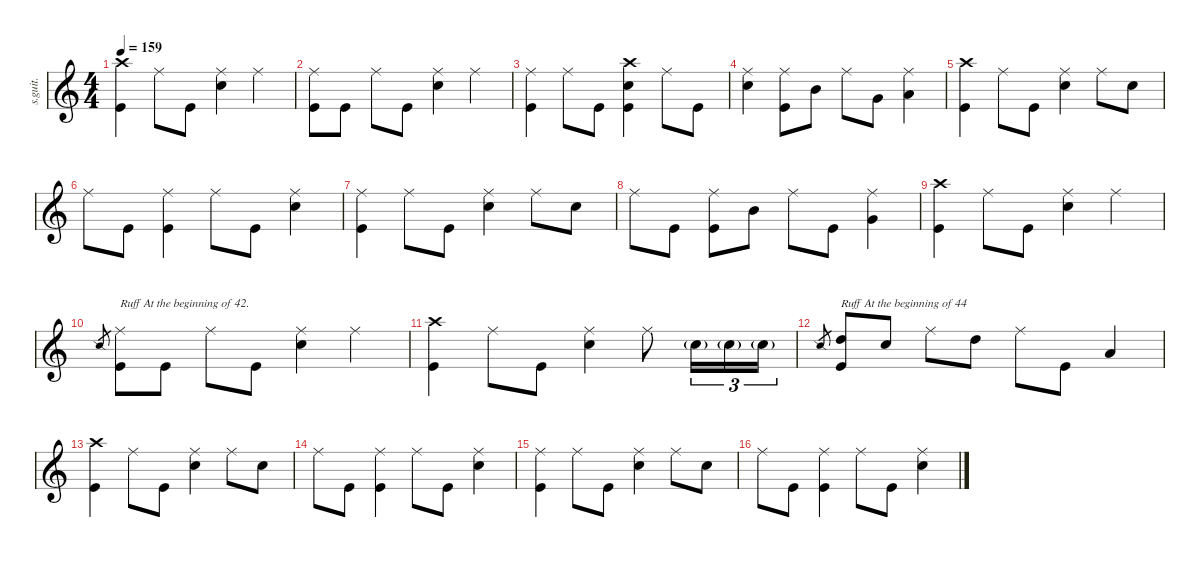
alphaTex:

\defaultSystemsLayout 4
\hideDynamics
\bracketExtendMode nobrackets
\track ("John Dolmayan" "s.guit.") {instrument percussion}
\staff {score}
\articulation defaults
\ts (4 4)
\tempo 159
\clef g2
\ks c
("Crash high (hit)" "Kick (hit)").4{lyrics (0 "") lyrics (1 "") lyrics (2 "") lyrics (3 "") lyrics (4 "") dy f} "Ride (middle)".8{lyrics (0 "") lyrics (1 "") lyrics (2 "") lyrics (3 "") lyrics (4 "")} "Kick (hit)".8{lyrics (0 "") lyrics (1 "") lyrics (2 "") lyrics (3 "") lyrics (4 "")} ("Ride (middle)" "Snare (hit) 2").4{lyrics (0 "") lyrics (1 "") lyrics (2 "") lyrics (3 "") lyrics (4 "")} "Ride (middle)".4{lyrics (0 "") lyrics (1 "") lyrics (2 "") lyrics (3 "") lyrics (4 "")} |
("Ride (middle)" "Kick (hit)").8{lyrics (0 "") lyrics (1 "") lyrics (2 "") lyrics (3 "") lyrics (4 "")} "Kick (hit)".8{lyrics (0 "") lyrics (1 "") lyrics (2 "") lyrics (3 "") lyrics (4 "")} "Ride (middle)".8{lyrics (0 "") lyrics (1 "") lyrics (2 "") lyrics (3 "") lyrics (4 "")} "Kick (hit)".8{lyrics (0 "") lyrics (1 "") lyrics (2 "") lyrics (3 "") lyrics (4 "")} ("Ride (middle)" "Snare (hit) 2").4{lyrics (0 "") lyrics (1 "") lyrics (2 "") lyrics (3 "") lyrics (4 "")} "Ride (middle)".4{lyrics (0 "") lyrics (1 "") lyrics (2 "") lyrics (3 "") lyrics (4 "")} |
("Ride (middle)" "Kick (hit)").4{lyrics (0 "") lyrics (1 "") lyrics (2 "") lyrics (3 "") lyrics (4 "")} "Ride (middle)".8{lyrics (0 "") lyrics (1 "") lyrics (2 "") lyrics (3 "") lyrics (4 "")} "Kick (hit)".8{lyrics (0 "") lyrics (1 "") lyrics (2 "") lyrics (3 "") lyrics (4 "")} ("Crash high (hit)" "Snare (hit) 2" "Kick (hit)").4{lyrics (0 "") lyrics (1 "") lyrics (2 "") lyrics (3 "") lyrics (4 "")} "Ride (middle)".8{lyrics (0 "") lyrics (1 "") lyrics (2 "") lyrics (3 "") lyrics (4 "")} "Kick (hit)".8{lyrics (0 "") lyrics (1 "") lyrics (2 "") lyrics (3 "") lyrics (4 "")} |
("Ride (middle)" "Snare (hit) 2").4{lyrics (0 "") lyrics (1 "") lyrics (2 "") lyrics (3 "") lyrics (4 "")} ("Ride (middle)" "Kick (hit)").8{lyrics (0 "") lyrics (1 "") lyrics (2 "") lyrics (3 "") lyrics (4 "")} "Mid Tom (hit)".8{lyrics (0 "") lyrics (1 "") lyrics (2 "") lyrics (3 "") lyrics (4 "")} "Ride (middle)".8{lyrics (0 "") lyrics (1 "") lyrics (2 "") lyrics (3 "") lyrics (4 "")} "Very Low Tom (hit)".8{lyrics (0 "") lyrics (1 "") lyrics (2 "") lyrics (3 "") lyrics (4 "")} ("Ride (middle)" "Low Floor Tom (hit)").4{lyrics (0 "") lyrics (1 "") lyrics (2 "") lyrics (3 "") lyrics (4 "")} |
("Crash high (hit)" "Kick (hit)").4{lyrics (0 "") lyrics (1 "") lyrics (2 "") lyrics (3 "") lyrics (4 "")} "Ride (middle)".8{lyrics (0 "") lyrics (1 "") lyrics (2 "") lyrics (3 "") lyrics (4 "")} "Kick (hit)".8{lyrics (0 "") lyrics (1 "") lyrics (2 "") lyrics (3 "") lyrics (4 "")} ("Ride (middle)" "Snare (hit) 2").4{lyrics (0 "") lyrics (1 "") lyrics (2 "") lyrics (3 "") lyrics (4 "")} "Ride (middle)".8{lyrics (0 "") lyrics (1 "") lyrics (2 "") lyrics (3 "") lyrics (4 "")} "Snare (hit) 2".8{lyrics (0 "") lyrics (1 "") lyrics (2 "") lyrics (3 "") lyrics (4 "")} |
"Ride (middle)".8{lyrics (0 "") lyrics (1 "") lyrics (2 "") lyrics (3 "") lyrics (4 "")} "Kick (hit)".8{lyrics (0 "") lyrics (1 "") lyrics (2 "") lyrics (3 "") lyrics (4 "")} ("Ride (middle)" "Kick (hit)").4{lyrics (0 "") lyrics (1 "") lyrics (2 "") lyrics (3 "") lyrics (4 "")} "Ride (middle)".8{lyrics (0 "") lyrics (1 "") lyrics (2 "") lyrics (3 "") lyrics (4 "")} "Kick (hit)".8{lyrics (0 "") lyrics (1 "") lyrics (2 "") lyrics (3 "") lyrics (4 "")} ("Ride (middle)" "Snare (hit) 2").4{lyrics (0 "") lyrics (1 "") lyrics (2 "") lyrics (3 "") lyrics (4 "")} |
("Kick (hit)" "Ride (middle)").4{lyrics (0 "") lyrics (1 "") lyrics (2 "") lyrics (3 "") lyrics (4 "")} "Ride (middle)".8{lyrics (0 "") lyrics (1 "") lyrics (2 "") lyrics (3 "") lyrics (4 "")} "Kick (hit)".8{lyrics (0 "") lyrics (1 "") lyrics (2 "") lyrics (3 "") lyrics (4 "")} ("Ride (middle)" "Snare (hit) 2").4{lyrics (0 "") lyrics (1 "") lyrics (2 "") lyrics (3 "") lyrics (4 "")} "Ride (middle)".8{lyrics (0 "") lyrics (1 "") lyrics (2 "") lyrics (3 "") lyrics (4 "")} "Snare (hit) 2".8{lyrics (0 "") lyrics (1 "") lyrics (2 "") lyrics (3 "") lyrics (4 "")} |
"Ride (middle)".8{lyrics (0 "") lyrics (1 "") lyrics (2 "") lyrics (3 "") lyrics (4 "")} "Kick (hit)".8{lyrics (0 "") lyrics (1 "") lyrics (2 "") lyrics (3 "") lyrics (4 "")} ("Ride (middle)" "Kick (hit)").8{lyrics (0 "") lyrics (1 "") lyrics (2 "") lyrics (3 "") lyrics (4 "")} "Mid Tom (hit)".8{lyrics (0 "") lyrics (1 "") lyrics (2 "") lyrics (3 "") lyrics (4 "")} "Ride (middle)".8{lyrics (0 "") lyrics (1 "") lyrics (2 "") lyrics (3 "") lyrics (4 "")} "Kick (hit)".8{lyrics (0 "") lyrics (1 "") lyrics (2 "") lyrics (3 "") lyrics (4 "")} ("Very Low Tom (hit)" "Ride (middle)").4{lyrics (0 "") lyrics (1 "") lyrics (2 "") lyrics (3 "") lyrics (4 "")} |
("Crash high (hit)" "Kick (hit)").4{lyrics (0 "") lyrics (1 "") lyrics (2 "") lyrics (3 "") lyrics (4 "")} "Ride (middle)".8{lyrics (0 "") lyrics (1 "") lyrics (2 "") lyrics (3 "") lyrics (4 "")} "Kick (hit)".8{lyrics (0 "") lyrics (1 "") lyrics (2 "") lyrics (3 "") lyrics (4 "")} ("Ride (middle)" "Snare (hit) 2").4{lyrics (0 "") lyrics (1 "") lyrics (2 "") lyrics (3 "") lyrics (4 "")} "Ride (middle)".4{lyrics (0 "") lyrics (1 "") lyrics (2 "") lyrics (3 "") lyrics (4 "")} |
"Snare (side stick) 2".8{lyrics (0 "") lyrics (1 "") lyrics (2 "") lyrics (3 "") lyrics (4 "") gr dy mp} ("Ride (middle)" "Kick (hit)").8{txt "Ruff At the beginning of 42." lyrics (0 "") lyrics (1 "") lyrics (2 "") lyrics (3 "") lyrics (4 "") dy f} "Kick (hit)".8{lyrics (0 "") lyrics (1 "") lyrics (2 "") lyrics (3 "") lyrics (4 "")} "Ride (middle)".8{lyrics (0 "") lyrics (1 "") lyrics (2 "") lyrics (3 "") lyrics (4 "")} "Kick (hit)".8{lyrics (0 "") lyrics (1 "") lyrics (2 "") lyrics (3 "") lyrics (4 "")} ("Ride (middle)" "Snare (hit) 2").4{lyrics (0 "") lyrics (1 "") lyrics (2 "") lyrics (3 "") lyrics (4 "")} "Ride (middle)".4{lyrics (0 "") lyrics (1 "") lyrics (2 "") lyrics (3 "") lyrics (4 "")} |
("Crash high (hit)" "Kick (hit)").4{lyrics (0 "") lyrics (1 "") lyrics (2 "") lyrics (3 "") lyrics (4 "")} "Ride (middle)".8{lyrics (0 "") lyrics (1 "") lyrics (2 "") lyrics (3 "") lyrics (4 "")} "Kick (hit)".8{lyrics (0 "") lyrics (1 "") lyrics (2 "") lyrics (3 "") lyrics (4 "")} ("Ride (middle)" "Snare (hit) 2").4{lyrics (0 "") lyrics (1 "") lyrics (2 "") lyrics (3 "") lyrics (4 "")} "Ride (middle)".8{lyrics (0 "") lyrics (1 "") lyrics (2 "") lyrics (3 "") lyrics (4 "")} "Snare (hit) 2"{g}.16{tu (3 2) lyrics (0 "") lyrics (1 "") lyrics (2 "") lyrics (3 "") lyrics (4 "") dy ff} "Snare (hit) 2"{g}.16{tu (3 2) lyrics (0 "") lyrics (1 "") lyrics (2 "") lyrics (3 "") lyrics (4 "")} "Snare (hit) 2"{g}.16{tu (3 2) lyrics (0 "") lyrics (1 "") lyrics (2 "") lyrics (3 "") lyrics (4 "")} |
"Snare (side stick) 2".8{lyrics (0 "") lyrics (1 "") lyrics (2 "") lyrics (3 "") lyrics (4 "") gr dy mp} ("High Tom (hit)" "Kick (hit)").8{txt "Ruff At the beginning of 44" lyrics (0 "") lyrics (1 "") lyrics (2 "") lyrics (3 "") lyrics (4 "") dy f} "Snare (hit) 2".8{lyrics (0 "") lyrics (1 "") lyrics (2 "") lyrics (3 "") lyrics (4 "")} "Ride (middle)".8{lyrics (0 "") lyrics (1 "") lyrics (2 "") lyrics (3 "") lyrics (4 "")} "High Tom (hit)".8{lyrics (0 "") lyrics (1 "") lyrics (2 "") lyrics (3 "") lyrics (4 "")} "Ride (middle)".8{lyrics (0 "") lyrics (1 "") lyrics (2 "") lyrics (3 "") lyrics (4 "")} "Kick (hit)".8{lyrics (0 "") lyrics (1 "") lyrics (2 "") lyrics (3 "") lyrics (4 "")} "Low Floor Tom (hit)".4{lyrics (0 "") lyrics (1 "") lyrics (2 "") lyrics (3 "") lyrics (4 "")} |
("Crash high (hit)" "Kick (hit)").4{lyrics (0 "") lyrics (1 "") lyrics (2 "") lyrics (3 "") lyrics (4 "")} "Ride (middle)".8{lyrics (0 "") lyrics (1 "") lyrics (2 "") lyrics (3 "") lyrics (4 "")} "Kick (hit)".8{lyrics (0 "") lyrics (1 "") lyrics (2 "") lyrics (3 "") lyrics (4 "")} ("Ride (middle)" "Snare (hit) 2").4{lyrics (0 "") lyrics (1 "") lyrics (2 "") lyrics (3 "") lyrics (4 "")} "Ride (middle)".8{lyrics (0 "") lyrics (1 "") lyrics (2 "") lyrics (3 "") lyrics (4 "")} "Snare (hit) 2".8{lyrics (0 "") lyrics (1 "") lyrics (2 "") lyrics (3 "") lyrics (4 "")} |
"Ride (middle)".8{lyrics (0 "") lyrics (1 "") lyrics (2 "") lyrics (3 "") lyrics (4 "")} "Kick (hit)".8{lyrics (0 "") lyrics (1 "") lyrics (2 "") lyrics (3 "") lyrics (4 "")} ("Ride (middle)" "Kick (hit)").4{lyrics (0 "") lyrics (1 "") lyrics (2 "") lyrics (3 "") lyrics (4 "")} "Ride (middle)".8{lyrics (0 "") lyrics (1 "") lyrics (2 "") lyrics (3 "") lyrics (4 "")} "Kick (hit)".8{lyrics (0 "") lyrics (1 "") lyrics (2 "") lyrics (3 "") lyrics (4 "")} ("Ride (middle)" "Snare (hit) 2").4{lyrics (0 "") lyrics (1 "") lyrics (2 "") lyrics (3 "") lyrics (4 "")} |
("Kick (hit)" "Ride (middle)").4{lyrics (0 "") lyrics (1 "") lyrics (2 "") lyrics (3 "") lyrics (4 "")} "Ride (middle)".8{lyrics (0 "") lyrics (1 "") lyrics (2 "") lyrics (3 "") lyrics (4 "")} "Kick (hit)".8{lyrics (0 "") lyrics (1 "") lyrics (2 "") lyrics (3 "") lyrics (4 "")} ("Ride (middle)" "Snare (hit) 2").4{lyrics (0 "") lyrics (1 "") lyrics (2 "") lyrics (3 "") lyrics (4 "")} "Ride (middle)".8{lyrics (0 "") lyrics (1 "") lyrics (2 "") lyrics (3 "") lyrics (4 "")} "Snare (hit) 2".8{lyrics (0 "") lyrics (1 "") lyrics (2 "") lyrics (3 "") lyrics (4 "")} |
"Ride (middle)".8{lyrics (0 "") lyrics (1 "") lyrics (2 "") lyrics (3 "") lyrics (4 "")} "Kick (hit)".8{lyrics (0 "") lyrics (1 "") lyrics (2 "") lyrics (3 "") lyrics (4 "")} ("Ride (middle)" "Kick (hit)").4{lyrics (0 "") lyrics (1 "") lyrics (2 "") lyrics (3 "") lyrics (4 "")} "Ride (middle)".8{lyrics (0 "") lyrics (1 "") lyrics (2 "") lyrics (3 "") lyrics (4 "")} "Kick (hit)".8{lyrics (0 "") lyrics (1 "") lyrics (2 "") lyrics (3 "") lyrics (4 "")} ("Ride (middle)" "Snare (hit) 2").4{lyrics (0 "") lyrics (1 "") lyrics (2 "") lyrics (3 "") lyrics (4 "")}
